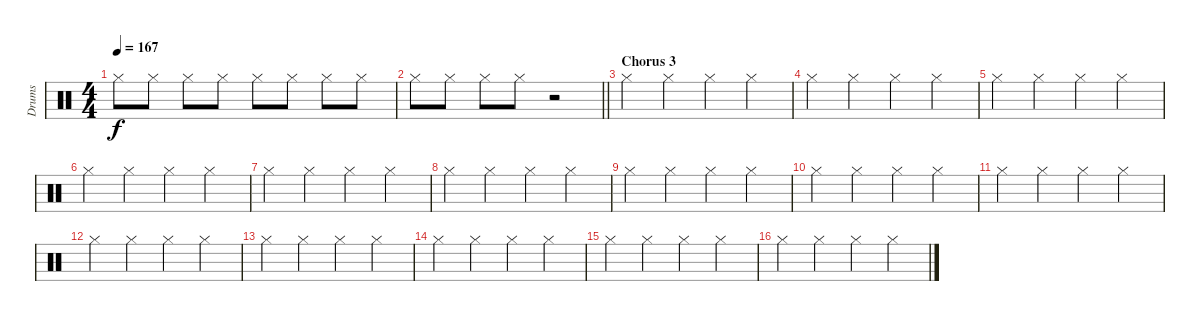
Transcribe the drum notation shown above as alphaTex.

\track ("Drums" "Drums") {instrument percussion}
\staff {score}
\articulation defaults
\ts (4 4)
\tempo 167
\clef neutral
\ks c "Hi-Hat (closed)".8{dy f} "Hi-Hat (closed)".8 "Hi-Hat (closed)".8 "Hi-Hat (closed)".8 "Hi-Hat (closed)".8 "Hi-Hat (closed)".8 "Hi-Hat (closed)".8 "Hi-Hat (closed)".8
|
\barLineRight lightlight "Hi-Hat (closed)".8 "Hi-Hat (closed)".8 "Hi-Hat (closed)".8 "Hi-Hat (closed)".8
r.2 |
\section ("" "Chorus 3")
"Hi-Hat (closed)".4 "Hi-Hat (closed)".4 "Hi-Hat (closed)".4 "Hi-Hat (closed)".4 |
"Hi-Hat (closed)".4 "Hi-Hat (closed)".4 "Hi-Hat (closed)".4 "Hi-Hat (closed)".4 |
"Hi-Hat (closed)".4 "Hi-Hat (closed)".4 "Hi-Hat (closed)".4 "Hi-Hat (closed)".4 |
"Hi-Hat (closed)".4 "Hi-Hat (closed)".4 "Hi-Hat (closed)".4 "Hi-Hat (closed)".4 |
"Hi-Hat (closed)".4 "Hi-Hat (closed)".4 "Hi-Hat (closed)".4 "Hi-Hat (closed)".4 |
"Hi-Hat (closed)".4 "Hi-Hat (closed)".4 "Hi-Hat (closed)".4 "Hi-Hat (closed)".4 |
"Hi-Hat (closed)".4 "Hi-Hat (closed)".4 "Hi-Hat (closed)".4 "Hi-Hat (closed)".4 |
"Hi-Hat (closed)".4 "Hi-Hat (closed)".4 "Hi-Hat (closed)".4 "Hi-Hat (closed)".4 |
"Hi-Hat (closed)".4 "Hi-Hat (closed)".4 "Hi-Hat (closed)".4 "Hi-Hat (closed)".4 |
"Hi-Hat (closed)".4 "Hi-Hat (closed)".4 "Hi-Hat (closed)".4 "Hi-Hat (closed)".4 |
"Hi-Hat (closed)".4 "Hi-Hat (closed)".4 "Hi-Hat (closed)".4 "Hi-Hat (closed)".4 |
"Hi-Hat (closed)".4 "Hi-Hat (closed)".4 "Hi-Hat (closed)".4 "Hi-Hat (closed)".4 |
"Hi-Hat (closed)".4 "Hi-Hat (closed)".4 "Hi-Hat (closed)".4 "Hi-Hat (closed)".4 |
"Hi-Hat (closed)".4 "Hi-Hat (closed)".4 "Hi-Hat (closed)".4 "Hi-Hat (closed)".4
